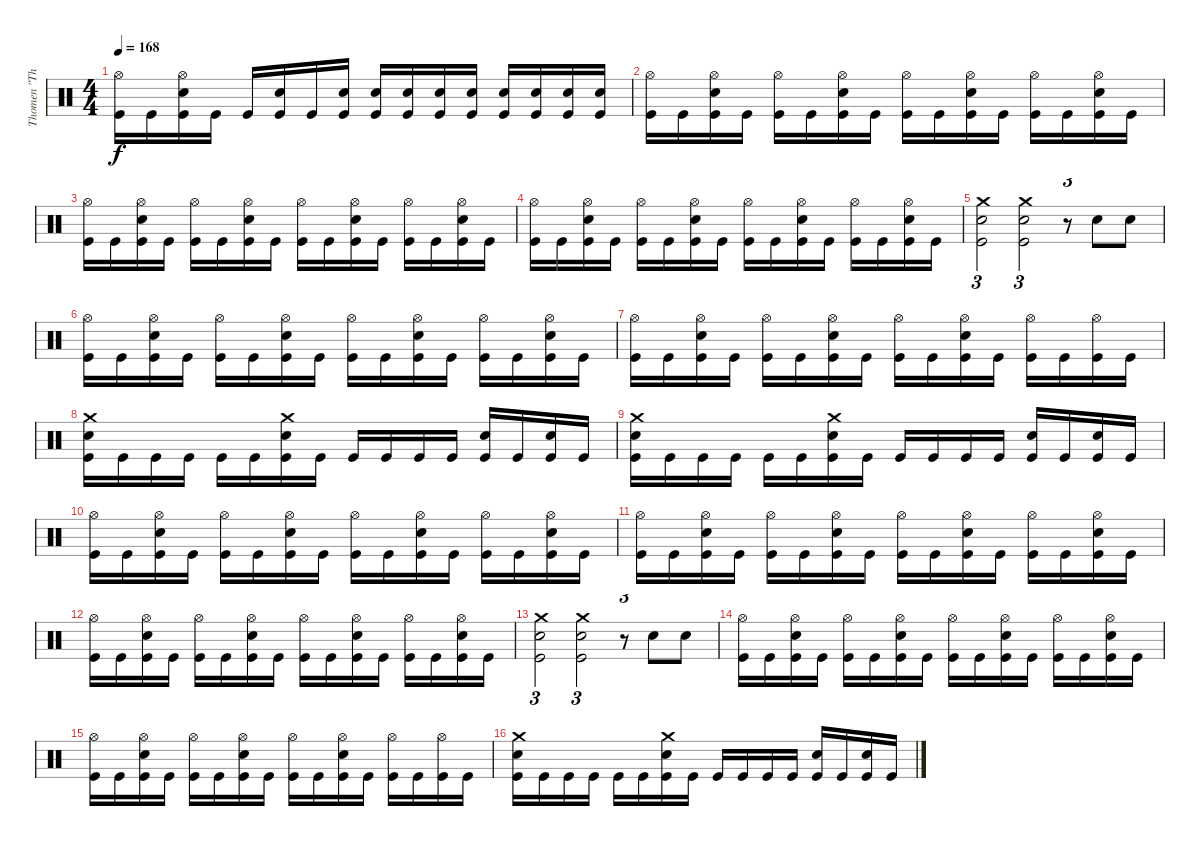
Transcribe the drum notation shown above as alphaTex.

\track ("Thomen \"The Omen\" Stauch" "Thomen \"Th") {instrument percussion}
\staff {score}
\articulation defaults
\ts (4 4)
\tempo 168
\clef neutral
\ks c
("Hi-Hat (open)" "Kick (hit)").16{dy f} "Kick (hit)".16 ("Hi-Hat (open)" "Snare (hit) 2" "Kick (hit)").16 "Kick (hit)".16 "Kick (hit)".16 ("Snare (hit) 2" "Kick (hit)").16 "Kick (hit)".16 ("Snare (hit) 2" "Kick (hit)").16 ("Snare (hit) 2" "Kick (hit)").16 ("Snare (hit) 2" "Kick (hit)").16 ("Snare (hit) 2" "Kick (hit)").16 ("Snare (hit) 2" "Kick (hit)").16 ("Snare (hit) 2" "Kick (hit)").16 ("Snare (hit) 2" "Kick (hit)").16 ("Snare (hit) 2" "Kick (hit)").16 ("Snare (hit) 2" "Kick (hit)").16 |
("Hi-Hat (open)" "Kick (hit)").16 "Kick (hit)".16 ("Hi-Hat (open)" "Snare (hit) 2" "Kick (hit)").16 "Kick (hit)".16 ("Hi-Hat (open)" "Kick (hit)").16 "Kick (hit)".16 ("Hi-Hat (open)" "Snare (hit) 2" "Kick (hit)").16 "Kick (hit)".16 ("Hi-Hat (open)" "Kick (hit)").16 "Kick (hit)".16 ("Hi-Hat (open)" "Snare (hit) 2" "Kick (hit)").16 "Kick (hit)".16 ("Hi-Hat (open)" "Kick (hit)").16 "Kick (hit)".16 ("Hi-Hat (open)" "Snare (hit) 2" "Kick (hit)").16 "Kick (hit)".16 |
("Hi-Hat (open)" "Kick (hit)").16 "Kick (hit)".16 ("Hi-Hat (open)" "Snare (hit) 2" "Kick (hit)").16 "Kick (hit)".16 ("Hi-Hat (open)" "Kick (hit)").16 "Kick (hit)".16 ("Hi-Hat (open)" "Snare (hit) 2" "Kick (hit)").16 "Kick (hit)".16 ("Hi-Hat (open)" "Kick (hit)").16 "Kick (hit)".16 ("Hi-Hat (open)" "Snare (hit) 2" "Kick (hit)").16 "Kick (hit)".16 ("Hi-Hat (open)" "Kick (hit)").16 "Kick (hit)".16 ("Hi-Hat (open)" "Snare (hit) 2" "Kick (hit)").16 "Kick (hit)".16 |
("Hi-Hat (open)" "Kick (hit)").16 "Kick (hit)".16 ("Hi-Hat (open)" "Snare (hit) 2" "Kick (hit)").16 "Kick (hit)".16 ("Hi-Hat (open)" "Kick (hit)").16 "Kick (hit)".16 ("Hi-Hat (open)" "Snare (hit) 2" "Kick (hit)").16 "Kick (hit)".16 ("Hi-Hat (open)" "Kick (hit)").16 "Kick (hit)".16 ("Hi-Hat (open)" "Snare (hit) 2" "Kick (hit)").16 "Kick (hit)".16 ("Hi-Hat (open)" "Kick (hit)").16 "Kick (hit)".16 ("Hi-Hat (open)" "Snare (hit) 2" "Kick (hit)").16 "Kick (hit)".16 |
("Crash medium (hit)" "Snare (hit) 2" "Kick (hit)").2{tu (3 2)} ("Crash medium (hit)" "Snare (hit) 2" "Kick (hit)").2{tu (3 2)} r.8{tu (3 2)} "Snare (hit) 2".8 "Snare (hit) 2".8 |
("Hi-Hat (open)" "Kick (hit)").16 "Kick (hit)".16 ("Hi-Hat (open)" "Snare (hit) 2" "Kick (hit)").16 "Kick (hit)".16 ("Hi-Hat (open)" "Kick (hit)").16 "Kick (hit)".16 ("Hi-Hat (open)" "Snare (hit) 2" "Kick (hit)").16 "Kick (hit)".16 ("Hi-Hat (open)" "Kick (hit)").16 "Kick (hit)".16 ("Hi-Hat (open)" "Snare (hit) 2" "Kick (hit)").16 "Kick (hit)".16 ("Hi-Hat (open)" "Kick (hit)").16 "Kick (hit)".16 ("Hi-Hat (open)" "Snare (hit) 2" "Kick (hit)").16 "Kick (hit)".16 |
("Hi-Hat (open)" "Kick (hit)").16 "Kick (hit)".16 ("Hi-Hat (open)" "Snare (hit) 2" "Kick (hit)").16 "Kick (hit)".16 ("Hi-Hat (open)" "Kick (hit)").16 "Kick (hit)".16 ("Hi-Hat (open)" "Snare (hit) 2" "Kick (hit)").16 "Kick (hit)".16 ("Hi-Hat (open)" "Kick (hit)").16 "Kick (hit)".16 ("Hi-Hat (open)" "Snare (hit) 2" "Kick (hit)").16 "Kick (hit)".16 ("Hi-Hat (open)" "Kick (hit)").16 "Kick (hit)".16 ("Hi-Hat (open)" "Kick (hit)").16 "Kick (hit)".16 |
("Crash medium (hit)" "Snare (hit) 2" "Kick (hit)").16 "Kick (hit)".16 "Kick (hit)".16 "Kick (hit)".16 "Kick (hit)".16 "Kick (hit)".16 ("Crash medium (hit)" "Snare (hit) 2" "Kick (hit)").16 "Kick (hit)".16 "Kick (hit)".16 "Kick (hit)".16 "Kick (hit)".16 "Kick (hit)".16 ("Snare (hit) 2" "Kick (hit)").16 "Kick (hit)".16 ("Snare (hit) 2" "Kick (hit)").16 "Kick (hit)".16 |
("Crash medium (hit)" "Snare (hit) 2" "Kick (hit)").16 "Kick (hit)".16 "Kick (hit)".16 "Kick (hit)".16 "Kick (hit)".16 "Kick (hit)".16 ("Crash medium (hit)" "Snare (hit) 2" "Kick (hit)").16 "Kick (hit)".16 "Kick (hit)".16 "Kick (hit)".16 "Kick (hit)".16 "Kick (hit)".16 ("Snare (hit) 2" "Kick (hit)").16 "Kick (hit)".16 ("Snare (hit) 2" "Kick (hit)").16 "Kick (hit)".16 |
("Hi-Hat (open)" "Kick (hit)").16 "Kick (hit)".16 ("Hi-Hat (open)" "Snare (hit) 2" "Kick (hit)").16 "Kick (hit)".16 ("Hi-Hat (open)" "Kick (hit)").16 "Kick (hit)".16 ("Hi-Hat (open)" "Snare (hit) 2" "Kick (hit)").16 "Kick (hit)".16 ("Hi-Hat (open)" "Kick (hit)").16 "Kick (hit)".16 ("Hi-Hat (open)" "Snare (hit) 2" "Kick (hit)").16 "Kick (hit)".16 ("Hi-Hat (open)" "Kick (hit)").16 "Kick (hit)".16 ("Hi-Hat (open)" "Snare (hit) 2" "Kick (hit)").16 "Kick (hit)".16 |
("Hi-Hat (open)" "Kick (hit)").16 "Kick (hit)".16 ("Hi-Hat (open)" "Snare (hit) 2" "Kick (hit)").16 "Kick (hit)".16 ("Hi-Hat (open)" "Kick (hit)").16 "Kick (hit)".16 ("Hi-Hat (open)" "Snare (hit) 2" "Kick (hit)").16 "Kick (hit)".16 ("Hi-Hat (open)" "Kick (hit)").16 "Kick (hit)".16 ("Hi-Hat (open)" "Snare (hit) 2" "Kick (hit)").16 "Kick (hit)".16 ("Hi-Hat (open)" "Kick (hit)").16 "Kick (hit)".16 ("Hi-Hat (open)" "Snare (hit) 2" "Kick (hit)").16 "Kick (hit)".16 |
("Hi-Hat (open)" "Kick (hit)").16 "Kick (hit)".16 ("Hi-Hat (open)" "Snare (hit) 2" "Kick (hit)").16 "Kick (hit)".16 ("Hi-Hat (open)" "Kick (hit)").16 "Kick (hit)".16 ("Hi-Hat (open)" "Snare (hit) 2" "Kick (hit)").16 "Kick (hit)".16 ("Hi-Hat (open)" "Kick (hit)").16 "Kick (hit)".16 ("Hi-Hat (open)" "Snare (hit) 2" "Kick (hit)").16 "Kick (hit)".16 ("Hi-Hat (open)" "Kick (hit)").16 "Kick (hit)".16 ("Hi-Hat (open)" "Snare (hit) 2" "Kick (hit)").16 "Kick (hit)".16 |
("Crash medium (hit)" "Snare (hit) 2" "Kick (hit)").2{tu (3 2)} ("Crash medium (hit)" "Snare (hit) 2" "Kick (hit)").2{tu (3 2)} r.8{tu (3 2)} "Snare (hit) 2".8 "Snare (hit) 2".8 |
("Hi-Hat (open)" "Kick (hit)").16 "Kick (hit)".16 ("Hi-Hat (open)" "Snare (hit) 2" "Kick (hit)").16 "Kick (hit)".16 ("Hi-Hat (open)" "Kick (hit)").16 "Kick (hit)".16 ("Hi-Hat (open)" "Snare (hit) 2" "Kick (hit)").16 "Kick (hit)".16 ("Hi-Hat (open)" "Kick (hit)").16 "Kick (hit)".16 ("Hi-Hat (open)" "Snare (hit) 2" "Kick (hit)").16 "Kick (hit)".16 ("Hi-Hat (open)" "Kick (hit)").16 "Kick (hit)".16 ("Hi-Hat (open)" "Snare (hit) 2" "Kick (hit)").16 "Kick (hit)".16 |
("Hi-Hat (open)" "Kick (hit)").16 "Kick (hit)".16 ("Hi-Hat (open)" "Snare (hit) 2" "Kick (hit)").16 "Kick (hit)".16 ("Hi-Hat (open)" "Kick (hit)").16 "Kick (hit)".16 ("Hi-Hat (open)" "Snare (hit) 2" "Kick (hit)").16 "Kick (hit)".16 ("Hi-Hat (open)" "Kick (hit)").16 "Kick (hit)".16 ("Hi-Hat (open)" "Snare (hit) 2" "Kick (hit)").16 "Kick (hit)".16 ("Hi-Hat (open)" "Kick (hit)").16 "Kick (hit)".16 ("Hi-Hat (open)" "Kick (hit)").16 "Kick (hit)".16 |
("Crash medium (hit)" "Snare (hit) 2" "Kick (hit)").16 "Kick (hit)".16 "Kick (hit)".16 "Kick (hit)".16 "Kick (hit)".16 "Kick (hit)".16 ("Crash medium (hit)" "Snare (hit) 2" "Kick (hit)").16 "Kick (hit)".16 "Kick (hit)".16 "Kick (hit)".16 "Kick (hit)".16 "Kick (hit)".16 ("Snare (hit) 2" "Kick (hit)").16 "Kick (hit)".16 ("Snare (hit) 2" "Kick (hit)").16 "Kick (hit)".16
